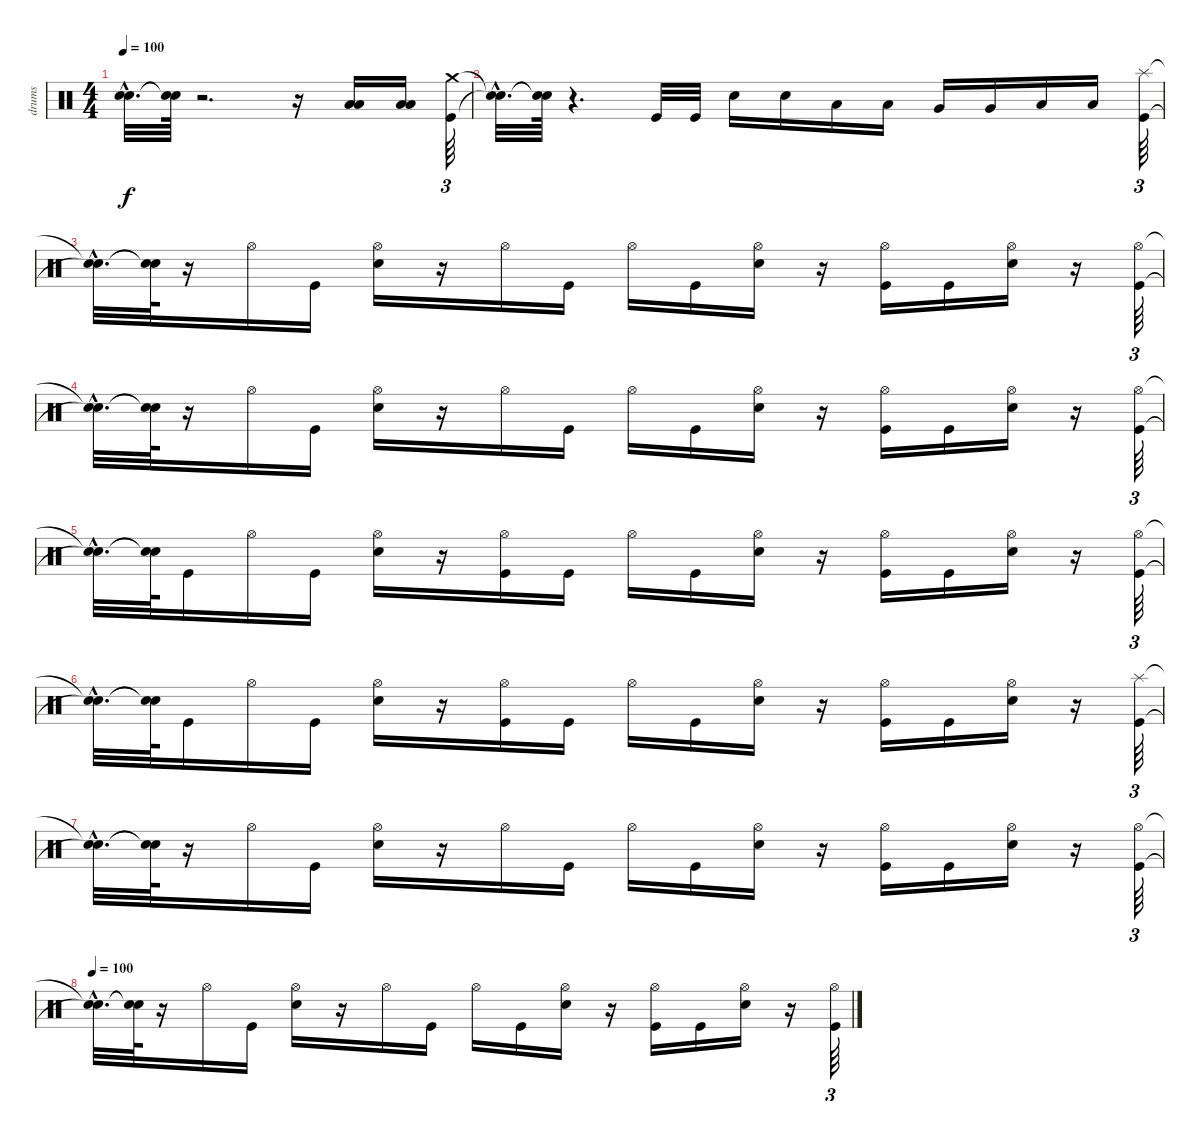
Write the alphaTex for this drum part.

\track ("drums" "drums") {instrument percussion}
\staff {score}
\articulation defaults
\ts (4 4)
\tempo 100
\clef neutral
\ks c
("Snare (hit)"{hac t} "Snare (hit)"{hac t}).32{d dy f} ("Snare (hit)"{t} "Snare (hit)"{t}).64 r.2{d} r.16 ("Low Tom (hit)" "Low Floor Tom (hit)").16 ("Low Tom (hit)" "Low Floor Tom (hit)").16 ("Crash medium (hit)" "Kick (hit)").64{tu (3 2)} |
("Snare (hit)"{hac t} "Snare (hit)"{hac t}).32{d} ("Snare (hit)"{t} "Snare (hit)"{t}).64 r.4{d} "Kick (hit)".32 "Kick (hit)".32 "Electric Snare (hit)".16 "Electric Snare (hit)".16 "Low Tom (hit)".16 "Low Tom (hit)".16 "Very Low Tom (hit)".16 "Very Low Tom (hit)".16 "Low Floor Tom (hit)".16 "Low Floor Tom (hit)".16 ("Splash (hit)" "Kick (hit)").64{tu (3 2)} |
("Snare (hit)"{hac t} "Snare (hit)"{hac t}).32{d} ("Snare (hit)"{t} "Snare (hit)"{t}).64 r.16 "Hi-Hat (open)".16 "Kick (hit)".16 ("Electric Snare (hit)" "Hi-Hat (open)").16 r.16 "Hi-Hat (open)".16 "Kick (hit)".16 "Hi-Hat (open)".16 "Kick (hit)".16 ("Hi-Hat (open)" "Electric Snare (hit)").16 r.16 ("Kick (hit)" "Hi-Hat (open)").16 "Kick (hit)".16 ("Hi-Hat (open)" "Electric Snare (hit)").16 r.16 ("Kick (hit)" "Hi-Hat (open)").64{tu (3 2)} |
("Snare (hit)"{hac t} "Snare (hit)"{hac t}).32{d} ("Snare (hit)"{t} "Snare (hit)"{t}).64 r.16 "Hi-Hat (open)".16 "Kick (hit)".16 ("Hi-Hat (open)" "Electric Snare (hit)").16 r.16 "Hi-Hat (open)".16 "Kick (hit)".16 "Hi-Hat (open)".16 "Kick (hit)".16 ("Hi-Hat (open)" "Electric Snare (hit)").16 r.16 ("Hi-Hat (open)" "Kick (hit)").16 "Kick (hit)".16 ("Hi-Hat (open)" "Electric Snare (hit)").16 r.16 ("Hi-Hat (open)" "Kick (hit)").64{tu (3 2)} |
("Snare (hit)"{hac t} "Snare (hit)"{hac t}).32{d} ("Snare (hit)"{t} "Snare (hit)"{t}).64 "Kick (hit)".16 "Hi-Hat (open)".16 "Kick (hit)".16 ("Electric Snare (hit)" "Hi-Hat (open)").16 r.16 ("Hi-Hat (open)" "Kick (hit)").16 "Kick (hit)".16 "Hi-Hat (open)".16 "Kick (hit)".16 ("Hi-Hat (open)" "Electric Snare (hit)").16 r.16 ("Kick (hit)" "Hi-Hat (open)").16 "Kick (hit)".16 ("Hi-Hat (open)" "Electric Snare (hit)").16 r.16 ("Kick (hit)" "Hi-Hat (open)").64{tu (3 2)} |
("Snare (hit)"{hac t} "Snare (hit)"{hac t}).32{d} ("Snare (hit)"{t} "Snare (hit)"{t}).64 "Kick (hit)".16 "Hi-Hat (open)".16 "Kick (hit)".16 ("Hi-Hat (open)" "Electric Snare (hit)").16 r.16 ("Hi-Hat (open)" "Kick (hit)").16 "Kick (hit)".16 "Hi-Hat (open)".16 "Kick (hit)".16 ("Hi-Hat (open)" "Electric Snare (hit)").16 r.16 ("Hi-Hat (open)" "Kick (hit)").16 "Kick (hit)".16 ("Hi-Hat (open)" "Electric Snare (hit)").16 r.16 ("Splash (hit)" "Kick (hit)").64{tu (3 2)} |
("Snare (hit)"{hac t} "Snare (hit)"{hac t}).32{d} ("Snare (hit)"{t} "Snare (hit)"{t}).64 r.16 "Hi-Hat (open)".16 "Kick (hit)".16 ("Electric Snare (hit)" "Hi-Hat (open)").16 r.16 "Hi-Hat (open)".16 "Kick (hit)".16 "Hi-Hat (open)".16 "Kick (hit)".16 ("Hi-Hat (open)" "Electric Snare (hit)").16 r.16 ("Kick (hit)" "Hi-Hat (open)").16 "Kick (hit)".16 ("Hi-Hat (open)" "Electric Snare (hit)").16 r.16 ("Kick (hit)" "Hi-Hat (open)").64{tu (3 2)} |
\tempo 100
("Snare (hit)"{hac t} "Snare (hit)"{hac t}).32{d} ("Snare (hit)"{t} "Snare (hit)"{t}).64 r.16 "Hi-Hat (open)".16 "Kick (hit)".16 ("Hi-Hat (open)" "Electric Snare (hit)").16 r.16 "Hi-Hat (open)".16 "Kick (hit)".16 "Hi-Hat (open)".16 "Kick (hit)".16 ("Hi-Hat (open)" "Electric Snare (hit)").16 r.16 ("Hi-Hat (open)" "Kick (hit)").16 "Kick (hit)".16 ("Hi-Hat (open)" "Electric Snare (hit)").16 r.16 ("Hi-Hat (open)" "Kick (hit)").64{tu (3 2)}
